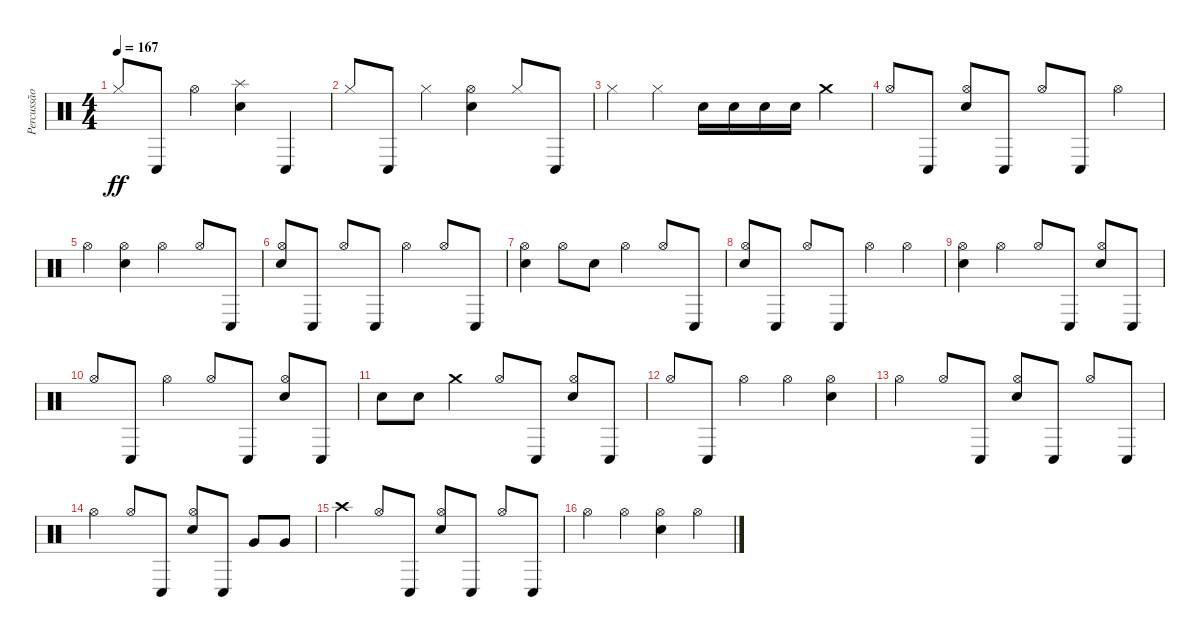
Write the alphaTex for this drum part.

\track ("Percussão" "Percussão") {instrument percussion}
\staff {score}
\articulation defaults
\ts (4 4)
\tempo 167
\clef neutral
\ks c "Hi-Hat (closed)".8{dy ff} "Conga low (hit)".8 "Hi-Hat (open)".4
("Electric Snare (hit)" "Splash (hit)").4 "Conga low (hit)".4 |
"Hi-Hat (closed)".8 "Conga low (hit)".8 "Hi-Hat (closed)".4 ("Electric Snare (hit)" "Hi-Hat (open)").4 "Hi-Hat (closed)".8 "Conga low (hit)".8 |
"Hi-Hat (closed)".4 "Hi-Hat (closed)".4 "Electric Snare (hit)".16 "Electric Snare (hit)".16 "Electric Snare (hit)".16 "Electric Snare (hit)".16 "Crash medium (hit)".4 |
"Hi-Hat (open)".8 "Conga low (hit)".8 ("Electric Snare (hit)" "Hi-Hat (open)").8 "Conga low (hit)".8 "Hi-Hat (open)".8 "Conga low (hit)".8 "Hi-Hat (open)".4 |
"Hi-Hat (open)".4 ("Electric Snare (hit)" "Hi-Hat (open)").4 "Hi-Hat (open)".4 "Hi-Hat (open)".8 "Conga low (hit)".8 |
("Electric Snare (hit)" "Hi-Hat (open)").8 "Conga low (hit)".8 "Hi-Hat (open)".8 "Conga low (hit)".8 "Hi-Hat (open)".4 "Hi-Hat (open)".8 "Conga low (hit)".8 |
("Electric Snare (hit)" "Hi-Hat (open)").4 "Hi-Hat (open)".8 "Electric Snare (hit)".8 "Hi-Hat (open)".4 "Hi-Hat (open)".8 "Conga low (hit)".8 |
("Electric Snare (hit)" "Hi-Hat (open)").8 "Conga low (hit)".8 "Hi-Hat (open)".8 "Conga low (hit)".8 "Hi-Hat (open)".4 "Hi-Hat (open)".4 |
("Electric Snare (hit)" "Hi-Hat (open)").4 "Hi-Hat (open)".4 "Hi-Hat (open)".8 "Conga low (hit)".8 ("Electric Snare (hit)" "Hi-Hat (open)").8 "Conga low (hit)".8 |
"Hi-Hat (open)".8 "Conga low (hit)".8 "Hi-Hat (open)".4 "Hi-Hat (open)".8 "Conga low (hit)".8 ("Electric Snare (hit)" "Hi-Hat (open)").8 "Conga low (hit)".8 |
"Electric Snare (hit)".8 "Electric Snare (hit)".8 "Crash medium (hit)".4 "Hi-Hat (open)".8 "Conga low (hit)".8 ("Electric Snare (hit)" "Hi-Hat (open)").8 "Conga low (hit)".8 |
"Hi-Hat (open)".8 "Conga low (hit)".8 "Hi-Hat (open)".4 "Hi-Hat (open)".4 ("Electric Snare (hit)" "Hi-Hat (open)").4 |
"Hi-Hat (open)".4 "Hi-Hat (open)".8 "Conga low (hit)".8 ("Electric Snare (hit)" "Hi-Hat (open)").8 "Conga low (hit)".8 "Hi-Hat (open)".8 "Conga low (hit)".8 |
"Hi-Hat (open)".4 "Hi-Hat (open)".8 "Conga low (hit)".8 ("Electric Snare (hit)" "Hi-Hat (open)").8 "Conga low (hit)".8 "Very Low Tom (hit)".8 "Very Low Tom (hit)".8 |
"Crash high (hit)".4 "Hi-Hat (open)".8 "Conga low (hit)".8 ("Electric Snare (hit)" "Hi-Hat (open)").8 "Conga low (hit)".8 "Hi-Hat (open)".8 "Conga low (hit)".8 |
"Hi-Hat (open)".4 "Hi-Hat (open)".4 ("Electric Snare (hit)" "Hi-Hat (open)").4 "Hi-Hat (open)".4
